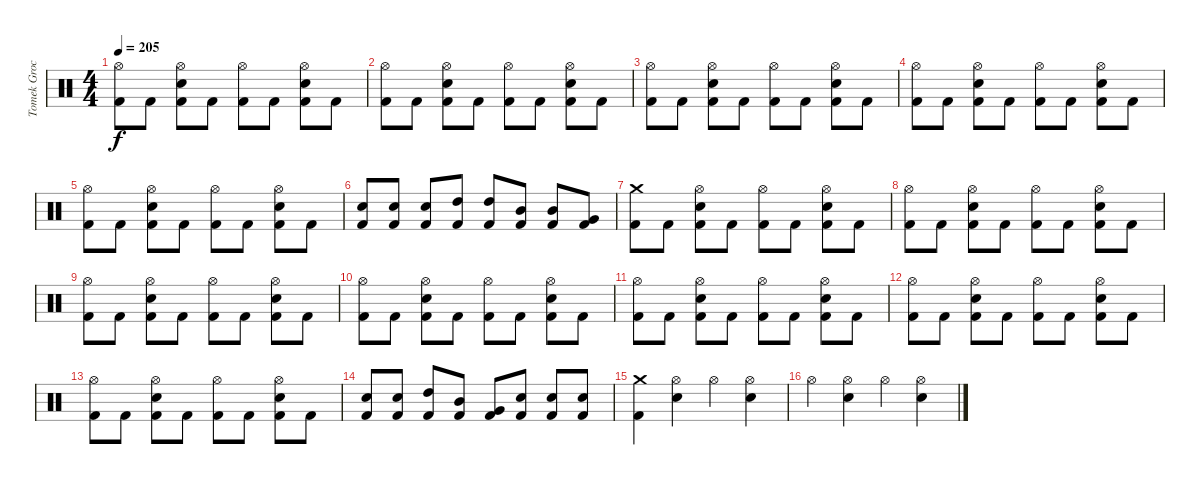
\track ("Tomek Grochowski" "Tomek Groc") {instrument percussion}
\staff {score}
\articulation defaults
\ts (4 4)
\tempo 205
\clef neutral
\ks c
("Hi-Hat (open)" "Kick (hit) 2").8{dy f} "Kick (hit) 2".8 ("Hi-Hat (open)" "Electric Snare (hit)" "Kick (hit) 2").8 "Kick (hit) 2".8 ("Hi-Hat (open)" "Kick (hit) 2").8 "Kick (hit) 2".8 ("Hi-Hat (open)" "Electric Snare (hit)" "Kick (hit) 2").8 "Kick (hit) 2".8 |
("Hi-Hat (open)" "Kick (hit) 2").8 "Kick (hit) 2".8 ("Hi-Hat (open)" "Electric Snare (hit)" "Kick (hit) 2").8 "Kick (hit) 2".8 ("Hi-Hat (open)" "Kick (hit) 2").8 "Kick (hit) 2".8 ("Hi-Hat (open)" "Electric Snare (hit)" "Kick (hit) 2").8 "Kick (hit) 2".8 |
("Hi-Hat (open)" "Kick (hit) 2").8 "Kick (hit) 2".8 ("Hi-Hat (open)" "Electric Snare (hit)" "Kick (hit) 2").8 "Kick (hit) 2".8 ("Hi-Hat (open)" "Kick (hit) 2").8 "Kick (hit) 2".8 ("Hi-Hat (open)" "Electric Snare (hit)" "Kick (hit) 2").8 "Kick (hit) 2".8 |
("Hi-Hat (open)" "Kick (hit) 2").8 "Kick (hit) 2".8 ("Hi-Hat (open)" "Electric Snare (hit)" "Kick (hit) 2").8 "Kick (hit) 2".8 ("Hi-Hat (open)" "Kick (hit) 2").8 "Kick (hit) 2".8 ("Hi-Hat (open)" "Electric Snare (hit)" "Kick (hit) 2").8 "Kick (hit) 2".8 |
("Hi-Hat (open)" "Kick (hit) 2").8 "Kick (hit) 2".8 ("Hi-Hat (open)" "Electric Snare (hit)" "Kick (hit) 2").8 "Kick (hit) 2".8 ("Hi-Hat (open)" "Kick (hit) 2").8 "Kick (hit) 2".8 ("Hi-Hat (open)" "Electric Snare (hit)" "Kick (hit) 2").8 "Kick (hit) 2".8 |
("Electric Snare (hit)" "Kick (hit) 2").8 ("Electric Snare (hit)" "Kick (hit) 2").8 ("Electric Snare (hit)" "Kick (hit) 2").8 ("High Tom (hit)" "Kick (hit) 2").8 ("High Tom (hit)" "Kick (hit) 2").8 ("Mid Tom (hit)" "Kick (hit) 2").8 ("Mid Tom (hit)" "Kick (hit) 2").8 ("Very Low Tom (hit)" "Kick (hit) 2").8 |
("Crash medium (hit)" "Kick (hit) 2").8 "Kick (hit) 2".8 ("Hi-Hat (open)" "Electric Snare (hit)" "Kick (hit) 2").8 "Kick (hit) 2".8 ("Hi-Hat (open)" "Kick (hit) 2").8 "Kick (hit) 2".8 ("Hi-Hat (open)" "Electric Snare (hit)" "Kick (hit) 2").8 "Kick (hit) 2".8 |
("Hi-Hat (open)" "Kick (hit) 2").8 "Kick (hit) 2".8 ("Hi-Hat (open)" "Electric Snare (hit)" "Kick (hit) 2").8 "Kick (hit) 2".8 ("Hi-Hat (open)" "Kick (hit) 2").8 "Kick (hit) 2".8 ("Hi-Hat (open)" "Electric Snare (hit)" "Kick (hit) 2").8 "Kick (hit) 2".8 |
("Hi-Hat (open)" "Kick (hit) 2").8 "Kick (hit) 2".8 ("Hi-Hat (open)" "Electric Snare (hit)" "Kick (hit) 2").8 "Kick (hit) 2".8 ("Hi-Hat (open)" "Kick (hit) 2").8 "Kick (hit) 2".8 ("Hi-Hat (open)" "Electric Snare (hit)" "Kick (hit) 2").8 "Kick (hit) 2".8 |
("Hi-Hat (open)" "Kick (hit) 2").8 "Kick (hit) 2".8 ("Hi-Hat (open)" "Electric Snare (hit)" "Kick (hit) 2").8 "Kick (hit) 2".8 ("Hi-Hat (open)" "Kick (hit) 2").8 "Kick (hit) 2".8 ("Hi-Hat (open)" "Electric Snare (hit)" "Kick (hit) 2").8 "Kick (hit) 2".8 |
("Hi-Hat (open)" "Kick (hit) 2").8 "Kick (hit) 2".8 ("Hi-Hat (open)" "Electric Snare (hit)" "Kick (hit) 2").8 "Kick (hit) 2".8 ("Hi-Hat (open)" "Kick (hit) 2").8 "Kick (hit) 2".8 ("Hi-Hat (open)" "Electric Snare (hit)" "Kick (hit) 2").8 "Kick (hit) 2".8 |
("Hi-Hat (open)" "Kick (hit) 2").8 "Kick (hit) 2".8 ("Hi-Hat (open)" "Electric Snare (hit)" "Kick (hit) 2").8 "Kick (hit) 2".8 ("Hi-Hat (open)" "Kick (hit) 2").8 "Kick (hit) 2".8 ("Hi-Hat (open)" "Electric Snare (hit)" "Kick (hit) 2").8 "Kick (hit) 2".8 |
("Hi-Hat (open)" "Kick (hit) 2").8 "Kick (hit) 2".8 ("Hi-Hat (open)" "Electric Snare (hit)" "Kick (hit) 2").8 "Kick (hit) 2".8 ("Hi-Hat (open)" "Kick (hit) 2").8 "Kick (hit) 2".8 ("Hi-Hat (open)" "Electric Snare (hit)" "Kick (hit) 2").8 "Kick (hit) 2".8 |
("Electric Snare (hit)" "Kick (hit) 2").8 ("Electric Snare (hit)" "Kick (hit) 2").8 ("High Tom (hit)" "Kick (hit) 2").8 ("Mid Tom (hit)" "Kick (hit) 2").8 ("Very Low Tom (hit)" "Kick (hit) 2").8 ("Electric Snare (hit)" "Kick (hit) 2").8 ("Electric Snare (hit)" "Kick (hit) 2").8 ("Electric Snare (hit)" "Kick (hit) 2").8 |
("Crash medium (hit)" "Kick (hit) 2").4 ("Hi-Hat (open)" "Electric Snare (hit)").4 "Hi-Hat (open)".4 ("Hi-Hat (open)" "Electric Snare (hit)").4 |
"Hi-Hat (open)".4 ("Hi-Hat (open)" "Electric Snare (hit)").4 "Hi-Hat (open)".4 ("Hi-Hat (open)" "Electric Snare (hit)").4
